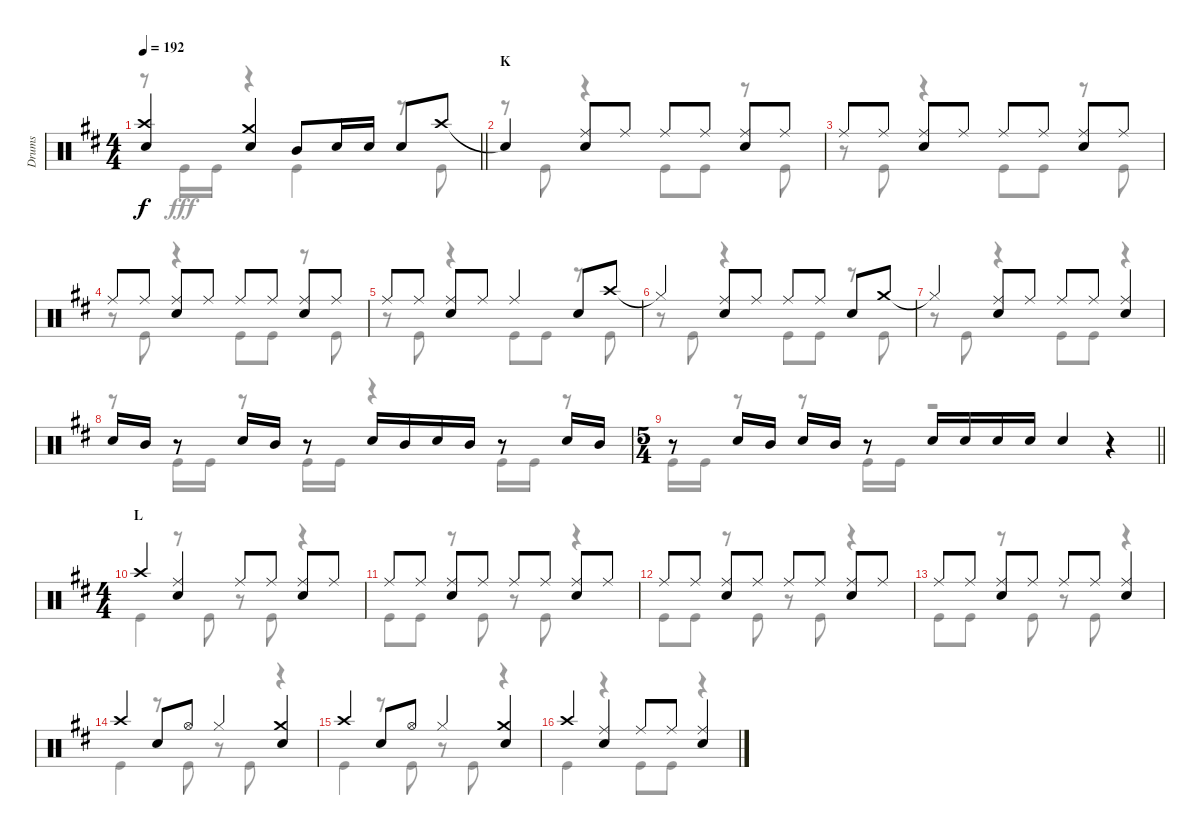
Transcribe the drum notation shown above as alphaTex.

\track ("Drums" "Drums") {instrument percussion}
\staff {score}
\articulation defaults
\voice
\ts (4 4)
\tempo 192
\clef neutral
\barLineRight lightlight
\ks d
("Crash high (hit)" "Snare (hit) 2").4{dy f} ("Crash medium (hit)" "Snare (hit) 2").4 "Mid Tom (hit)".8 "Snare (hit) 2".16 "Snare (hit) 2".16 "Snare (hit) 2".8 "Crash high (hit)".8 |
\section ("" "K")
"Snare (hit)"{t}.4 ("Ride (middle)" "Snare (hit) 2").8 "Ride (middle)".8 "Ride (middle)".8 "Ride (middle)".8 ("Ride (middle)" "Snare (hit) 2").8 "Ride (middle)".8 |
"Ride (middle)".8 "Ride (middle)".8 ("Ride (middle)" "Snare (hit) 2").8 "Ride (middle)".8 "Ride (middle)".8 "Ride (middle)".8 ("Ride (middle)" "Snare (hit) 2").8 "Ride (middle)".8 |
"Ride (middle)".8 "Ride (middle)".8 ("Ride (middle)" "Snare (hit) 2").8 "Ride (middle)".8 "Ride (middle)".8 "Ride (middle)".8 ("Ride (middle)" "Snare (hit) 2").8 "Ride (middle)".8 |
"Ride (middle)".8 "Ride (middle)".8 ("Ride (middle)" "Snare (hit) 2").8 "Ride (middle)".8 "Ride (middle)".4 "Snare (hit) 2".8 "Crash high (hit)".8 |
"Hi-Hat (closed)"{t}.4 ("Ride (middle)" "Snare (hit) 2").8 "Ride (middle)".8 "Ride (middle)".8 "Ride (middle)".8 "Snare (hit) 2".8 "Crash medium (hit)".8 |
"Hi-Hat (closed)"{t}.4 ("Ride (middle)" "Snare (hit) 2").8 "Ride (middle)".8 "Ride (middle)".8 "Ride (middle)".8 ("Ride (middle)" "Snare (hit) 2").4 |
"Snare (hit) 2".16 "Mid Tom (hit)".16 r.8 "Snare (hit) 2".16 "Mid Tom (hit)".16 r.8 "Snare (hit) 2".16 "Mid Tom (hit)".16 "Snare (hit) 2".16 "Mid Tom (hit)".16 r.8 "Snare (hit) 2".16 "Mid Tom (hit)".16 |
\ts (5 4)
\barLineRight lightlight
r.8 "Snare (hit) 2".16 "Mid Tom (hit)".16 "Snare (hit) 2".16 "Mid Tom (hit)".16 r.8 "Snare (hit) 2".16 "Snare (hit) 2".16 "Snare (hit) 2".16 "Snare (hit) 2".16 "Snare (hit) 2".4 r.4 |
\ts (4 4)
\section ("" "L")
"Crash high (hit)".4 ("Ride (middle)" "Snare (hit) 2").4 "Ride (middle)".8 "Ride (middle)".8 ("Ride (middle)" "Snare (hit) 2").8 "Ride (middle)".8 |
"Ride (middle)".8 "Ride (middle)".8 ("Ride (middle)" "Snare (hit) 2").8 "Ride (middle)".8 "Ride (middle)".8 "Ride (middle)".8 ("Ride (middle)" "Snare (hit) 2").8 "Ride (middle)".8 |
"Ride (middle)".8 "Ride (middle)".8 ("Ride (middle)" "Snare (hit) 2").8 "Ride (middle)".8 "Ride (middle)".8 "Ride (middle)".8 ("Ride (middle)" "Snare (hit) 2").8 "Ride (middle)".8 |
"Ride (middle)".8 "Ride (middle)".8 ("Ride (middle)" "Snare (hit) 2").8 "Ride (middle)".8 "Ride (middle)".8 "Ride (middle)".8 ("Ride (middle)" "Snare (hit) 2").4 |
"Crash high (hit)".4 "Snare (hit) 2".8 "Hi-Hat (open)".8 "Hi-Hat (closed)".4 ("Crash medium (hit)" "Snare (hit) 2").4 |
"Crash high (hit)".4 "Snare (hit) 2".8 "Hi-Hat (open)".8 "Hi-Hat (closed)".4 ("Crash medium (hit)" "Snare (hit) 2").4 |
"Crash high (hit)".4 ("Ride (middle)" "Snare (hit) 2").4 "Ride (middle)".8 "Ride (middle)".8 ("Ride (middle)" "Snare (hit) 2").4
\voice
\clef neutral
\ottava regular
\simile none
\barLineRight lightlight
\ks d
r.8{dy fff} "Kick (hit)".16 "Kick (hit)".16 r.4 "Kick (hit)".4 r.8 "Kick (hit)".8 |
r.8 "Kick (hit)".8 r.4 "Kick (hit)".8 "Kick (hit)".8 r.8 "Kick (hit)".8 |
r.8 "Kick (hit)".8 r.4 "Kick (hit)".8 "Kick (hit)".8 r.8 "Kick (hit)".8 |
r.8 "Kick (hit)".8 r.4 "Kick (hit)".8 "Kick (hit)".8 r.8 "Kick (hit)".8 |
r.8 "Kick (hit)".8 r.4 "Kick (hit)".8 "Kick (hit)".8 r.8 "Kick (hit)".8 |
r.8 "Kick (hit)".8 r.4 "Kick (hit)".8 "Kick (hit)".8 r.8 "Kick (hit)".8 |
r.8 "Kick (hit)".8 r.4 "Kick (hit)".8 "Kick (hit)".8 r.4 |
r.8 "Kick (hit)".16 "Kick (hit)".16 r.8 "Kick (hit)".16 "Kick (hit)".16 r.4 "Kick (hit)".16 "Kick (hit)".16 r.8 |
\barLineRight lightlight "Kick (hit)".16 "Kick (hit)".16
r.8 r.8 "Kick (hit)".16 "Kick (hit)".16 r.2 r.4 |
"Kick (hit)".4 r.8 "Kick (hit)".8 r.8 "Kick (hit)".8 r.4 |
"Kick (hit)".8 "Kick (hit)".8 r.8 "Kick (hit)".8 r.8 "Kick (hit)".8 r.4 |
"Kick (hit)".8 "Kick (hit)".8 r.8 "Kick (hit)".8 r.8 "Kick (hit)".8 r.4 |
"Kick (hit)".8 "Kick (hit)".8 r.8 "Kick (hit)".8 r.8 "Kick (hit)".8 r.4 |
"Kick (hit)".4 r.8 "Kick (hit)".8 r.8 "Kick (hit)".8 r.4 |
"Kick (hit)".4 r.8 "Kick (hit)".8 r.8 "Kick (hit)".8 r.4 |
"Kick (hit)".4 r.4 "Kick (hit)".8 "Kick (hit)".8 r.4
